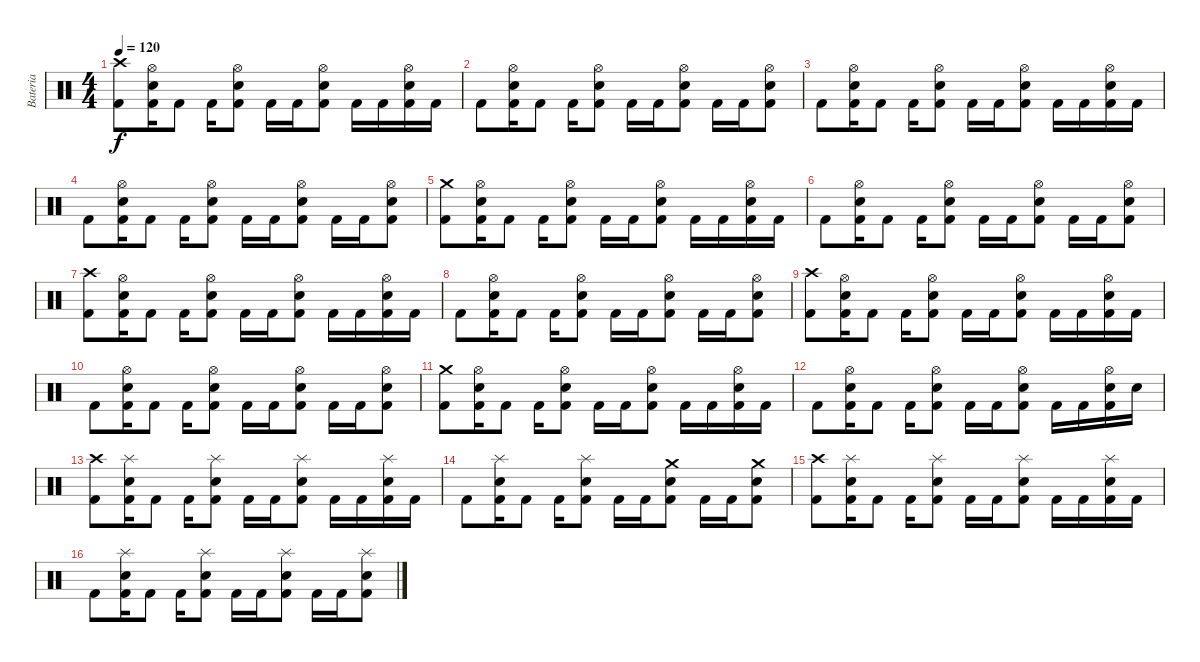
\track ("Bateria" "Bateria") {instrument percussion}
\staff {score}
\articulation defaults
\ts (4 4)
\tempo 120
\clef neutral
\ks c
("Kick (hit) 2" "Crash high (hit)").8{dy f} ("Kick (hit) 2" "Electric Snare (hit)" "Hi-Hat (open)").16 "Kick (hit) 2".8 "Kick (hit) 2".16 ("Kick (hit) 2" "Electric Snare (hit)" "Hi-Hat (open)").8 "Kick (hit) 2".16 "Kick (hit) 2".16 ("Kick (hit) 2" "Electric Snare (hit)" "Hi-Hat (open)").8 "Kick (hit) 2".16 "Kick (hit) 2".16 ("Kick (hit) 2" "Electric Snare (hit)" "Hi-Hat (open)").16 "Kick (hit) 2".16 |
"Kick (hit) 2".8 ("Kick (hit) 2" "Electric Snare (hit)" "Hi-Hat (open)").16 "Kick (hit) 2".8 "Kick (hit) 2".16 ("Kick (hit) 2" "Electric Snare (hit)" "Hi-Hat (open)").8 "Kick (hit) 2".16 "Kick (hit) 2".16 ("Kick (hit) 2" "Electric Snare (hit)" "Hi-Hat (open)").8 "Kick (hit) 2".16 "Kick (hit) 2".16 ("Kick (hit) 2" "Electric Snare (hit)" "Hi-Hat (open)").8 |
"Kick (hit) 2".8 ("Kick (hit) 2" "Electric Snare (hit)" "Hi-Hat (open)").16 "Kick (hit) 2".8 "Kick (hit) 2".16 ("Kick (hit) 2" "Electric Snare (hit)" "Hi-Hat (open)").8 "Kick (hit) 2".16 "Kick (hit) 2".16 ("Kick (hit) 2" "Electric Snare (hit)" "Hi-Hat (open)").8 "Kick (hit) 2".16 "Kick (hit) 2".16 ("Kick (hit) 2" "Electric Snare (hit)" "Hi-Hat (open)").16 "Kick (hit) 2".16 |
"Kick (hit) 2".8 ("Kick (hit) 2" "Electric Snare (hit)" "Hi-Hat (open)").16 "Kick (hit) 2".8 "Kick (hit) 2".16 ("Kick (hit) 2" "Electric Snare (hit)" "Hi-Hat (open)").8 "Kick (hit) 2".16 "Kick (hit) 2".16 ("Kick (hit) 2" "Electric Snare (hit)" "Hi-Hat (open)").8 "Kick (hit) 2".16 "Kick (hit) 2".16 ("Kick (hit) 2" "Electric Snare (hit)" "Hi-Hat (open)").8 |
("Kick (hit) 2" "Crash medium (hit)").8 ("Kick (hit) 2" "Electric Snare (hit)" "Hi-Hat (open)").16 "Kick (hit) 2".8 "Kick (hit) 2".16 ("Kick (hit) 2" "Electric Snare (hit)" "Hi-Hat (open)").8 "Kick (hit) 2".16 "Kick (hit) 2".16 ("Kick (hit) 2" "Electric Snare (hit)" "Hi-Hat (open)").8 "Kick (hit) 2".16 "Kick (hit) 2".16 ("Kick (hit) 2" "Electric Snare (hit)" "Hi-Hat (open)").16 "Kick (hit) 2".16 |
"Kick (hit) 2".8 ("Kick (hit) 2" "Electric Snare (hit)" "Hi-Hat (open)").16 "Kick (hit) 2".8 "Kick (hit) 2".16 ("Kick (hit) 2" "Electric Snare (hit)" "Hi-Hat (open)").8 "Kick (hit) 2".16 "Kick (hit) 2".16 ("Kick (hit) 2" "Electric Snare (hit)" "Hi-Hat (open)").8 "Kick (hit) 2".16 "Kick (hit) 2".16 ("Kick (hit) 2" "Electric Snare (hit)" "Hi-Hat (open)").8 |
("Kick (hit) 2" "Crash high (hit)").8 ("Kick (hit) 2" "Electric Snare (hit)" "Hi-Hat (open)").16 "Kick (hit) 2".8 "Kick (hit) 2".16 ("Kick (hit) 2" "Electric Snare (hit)" "Hi-Hat (open)").8 "Kick (hit) 2".16 "Kick (hit) 2".16 ("Kick (hit) 2" "Electric Snare (hit)" "Hi-Hat (open)").8 "Kick (hit) 2".16 "Kick (hit) 2".16 ("Kick (hit) 2" "Electric Snare (hit)" "Hi-Hat (open)").16 "Kick (hit) 2".16 |
"Kick (hit) 2".8 ("Kick (hit) 2" "Electric Snare (hit)" "Hi-Hat (open)").16 "Kick (hit) 2".8 "Kick (hit) 2".16 ("Kick (hit) 2" "Electric Snare (hit)" "Hi-Hat (open)").8 "Kick (hit) 2".16 "Kick (hit) 2".16 ("Kick (hit) 2" "Electric Snare (hit)" "Hi-Hat (open)").8 "Kick (hit) 2".16 "Kick (hit) 2".16 ("Kick (hit) 2" "Electric Snare (hit)" "Hi-Hat (open)").8 |
("Kick (hit) 2" "Crash high (hit)").8 ("Kick (hit) 2" "Electric Snare (hit)" "Hi-Hat (open)").16 "Kick (hit) 2".8 "Kick (hit) 2".16 ("Kick (hit) 2" "Electric Snare (hit)" "Hi-Hat (open)").8 "Kick (hit) 2".16 "Kick (hit) 2".16 ("Kick (hit) 2" "Electric Snare (hit)" "Hi-Hat (open)").8 "Kick (hit) 2".16 "Kick (hit) 2".16 ("Kick (hit) 2" "Electric Snare (hit)" "Hi-Hat (open)").16 "Kick (hit) 2".16 |
"Kick (hit) 2".8 ("Kick (hit) 2" "Electric Snare (hit)" "Hi-Hat (open)").16 "Kick (hit) 2".8 "Kick (hit) 2".16 ("Kick (hit) 2" "Electric Snare (hit)" "Hi-Hat (open)").8 "Kick (hit) 2".16 "Kick (hit) 2".16 ("Kick (hit) 2" "Electric Snare (hit)" "Hi-Hat (open)").8 "Kick (hit) 2".16 "Kick (hit) 2".16 ("Kick (hit) 2" "Electric Snare (hit)" "Hi-Hat (open)").8 |
("Kick (hit) 2" "Crash medium (hit)").8 ("Kick (hit) 2" "Electric Snare (hit)" "Hi-Hat (open)").16 "Kick (hit) 2".8 "Kick (hit) 2".16 ("Kick (hit) 2" "Electric Snare (hit)" "Hi-Hat (open)").8 "Kick (hit) 2".16 "Kick (hit) 2".16 ("Kick (hit) 2" "Electric Snare (hit)" "Hi-Hat (open)").8 "Kick (hit) 2".16 "Kick (hit) 2".16 ("Kick (hit) 2" "Electric Snare (hit)" "Hi-Hat (open)").16 "Kick (hit) 2".16 |
"Kick (hit) 2".8 ("Kick (hit) 2" "Electric Snare (hit)" "Hi-Hat (open)").16 "Kick (hit) 2".8 "Kick (hit) 2".16 ("Kick (hit) 2" "Electric Snare (hit)" "Hi-Hat (open)").8 "Kick (hit) 2".16 "Kick (hit) 2".16 ("Kick (hit) 2" "Electric Snare (hit)" "Hi-Hat (open)").8 "Kick (hit) 2".16 "Kick (hit) 2".16 ("Kick (hit) 2" "Electric Snare (hit)" "Hi-Hat (open)").16 "Electric Snare (hit)".16 |
("Kick (hit) 2" "Crash high (hit)").8 ("Kick (hit) 2" "Electric Snare (hit)" "Splash (hit)").16 "Kick (hit) 2".8 "Kick (hit) 2".16 ("Kick (hit) 2" "Electric Snare (hit)" "Splash (hit)").8 "Kick (hit) 2".16 "Kick (hit) 2".16 ("Kick (hit) 2" "Electric Snare (hit)" "Splash (hit)").8 "Kick (hit) 2".16 "Kick (hit) 2".16 ("Kick (hit) 2" "Electric Snare (hit)" "Splash (hit)").16 "Kick (hit) 2".16 |
"Kick (hit) 2".8 ("Kick (hit) 2" "Electric Snare (hit)" "Splash (hit)").16 "Kick (hit) 2".8 "Kick (hit) 2".16 ("Kick (hit) 2" "Electric Snare (hit)" "Splash (hit)").8 "Kick (hit) 2".16 "Kick (hit) 2".16 ("Kick (hit) 2" "Electric Snare (hit)" "Crash medium (hit)").8 "Kick (hit) 2".16 "Kick (hit) 2".16 ("Kick (hit) 2" "Electric Snare (hit)" "Crash medium (hit)").8 |
("Kick (hit) 2" "Crash high (hit)").8 ("Kick (hit) 2" "Electric Snare (hit)" "Splash (hit)").16 "Kick (hit) 2".8 "Kick (hit) 2".16 ("Kick (hit) 2" "Electric Snare (hit)" "Splash (hit)").8 "Kick (hit) 2".16 "Kick (hit) 2".16 ("Kick (hit) 2" "Electric Snare (hit)" "Splash (hit)").8 "Kick (hit) 2".16 "Kick (hit) 2".16 ("Kick (hit) 2" "Electric Snare (hit)" "Splash (hit)").16 "Kick (hit) 2".16 |
"Kick (hit) 2".8 ("Kick (hit) 2" "Electric Snare (hit)" "Splash (hit)").16 "Kick (hit) 2".8 "Kick (hit) 2".16 ("Kick (hit) 2" "Electric Snare (hit)" "Splash (hit)").8 "Kick (hit) 2".16 "Kick (hit) 2".16 ("Kick (hit) 2" "Electric Snare (hit)" "Splash (hit)").8 "Kick (hit) 2".16 "Kick (hit) 2".16 ("Kick (hit) 2" "Electric Snare (hit)" "Splash (hit)").8
